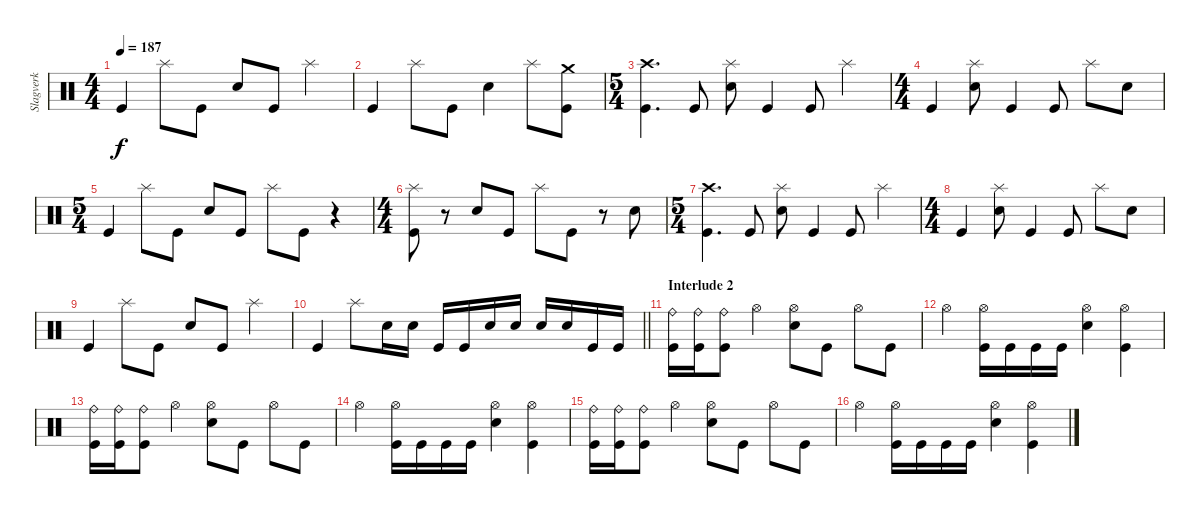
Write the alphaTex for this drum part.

\track ("Slagverk" "Slagverk") {instrument percussion}
\staff {score}
\articulation defaults
\ts (4 4)
\tempo 187
\clef neutral
\ks c "Kick (hit)".4{dy f} "Splash (hit)".8 "Kick (hit)".8 "Electric Snare (hit)".8 "Kick (hit)".8 "Splash (hit)".4
|
"Kick (hit)".4 "Splash (hit)".8 "Kick (hit)".8 "Electric Snare (hit)".4 "Splash (hit)".8 ("Crash medium (hit)" "Kick (hit)").8 |
\ts (5 4)
("Crash high (hit)" "Kick (hit)").4{d} "Kick (hit)".8 ("Splash (hit)" "Electric Snare (hit)").8 "Kick (hit)".4 "Kick (hit)".8 "Splash (hit)".4 |
\ts (4 4)
"Kick (hit)".4 ("Splash (hit)" "Electric Snare (hit)").8 "Kick (hit)".4 "Kick (hit)".8 "Splash (hit)".8 "Electric Snare (hit)".8 |
\ts (5 4)
"Kick (hit)".4 "Splash (hit)".8 "Kick (hit)".8 "Electric Snare (hit)".8 "Kick (hit)".8 "Splash (hit)".8 "Kick (hit)".8 r.4 |
\ts (4 4)
("Splash (hit)" "Kick (hit)").8 r.8 "Electric Snare (hit)".8 "Kick (hit)".8 "Splash (hit)".8 "Kick (hit)".8 r.8 "Electric Snare (hit)".8 |
\ts (5 4)
("Crash high (hit)" "Kick (hit)").4{d} "Kick (hit)".8 ("Splash (hit)" "Electric Snare (hit)").8 "Kick (hit)".4 "Kick (hit)".8 "Splash (hit)".4 |
\ts (4 4)
"Kick (hit)".4 ("Splash (hit)" "Electric Snare (hit)").8 "Kick (hit)".4 "Kick (hit)".8 "Splash (hit)".8 "Electric Snare (hit)".8 |
"Kick (hit)".4 "Splash (hit)".8 "Kick (hit)".8 "Electric Snare (hit)".8 "Kick (hit)".8 "Splash (hit)".4 |
\barLineRight lightlight "Kick (hit)".4 "Splash (hit)".8 "Electric Snare (hit)".16 "Electric Snare (hit)".16 "Kick (hit)".16 "Kick (hit)".16 "Electric Snare (hit)".16 "Electric Snare (hit)".16 "Electric Snare (hit)".16 "Electric Snare (hit)".16 "Kick (hit)".16 "Kick (hit)".16
|
\section ("" "Interlude 2")
("Ride (bell)" "Kick (hit)").16 ("Ride (bell)" "Kick (hit)").16 ("Ride (bell)" "Kick (hit)").8 "Hi-Hat (open)".4 ("Hi-Hat (open)" "Electric Snare (hit)").8 "Kick (hit)".8 "Hi-Hat (open)".8 "Kick (hit)".8 |
"Hi-Hat (open)".4 ("Hi-Hat (open)" "Kick (hit)").16 "Kick (hit)".16 "Kick (hit)".16 "Kick (hit)".16 ("Hi-Hat (open)" "Electric Snare (hit)").4 ("Hi-Hat (open)" "Kick (hit)").4 |
("Ride (bell)" "Kick (hit)").16 ("Ride (bell)" "Kick (hit)").16 ("Ride (bell)" "Kick (hit)").8 "Hi-Hat (open)".4 ("Hi-Hat (open)" "Electric Snare (hit)").8 "Kick (hit)".8 "Hi-Hat (open)".8 "Kick (hit)".8 |
"Hi-Hat (open)".4 ("Hi-Hat (open)" "Kick (hit)").16 "Kick (hit)".16 "Kick (hit)".16 "Kick (hit)".16 ("Hi-Hat (open)" "Electric Snare (hit)").4 ("Hi-Hat (open)" "Kick (hit)").4 |
("Ride (bell)" "Kick (hit)").16 ("Ride (bell)" "Kick (hit)").16 ("Ride (bell)" "Kick (hit)").8 "Hi-Hat (open)".4 ("Hi-Hat (open)" "Electric Snare (hit)").8 "Kick (hit)".8 "Hi-Hat (open)".8 "Kick (hit)".8 |
"Hi-Hat (open)".4 ("Hi-Hat (open)" "Kick (hit)").16 "Kick (hit)".16 "Kick (hit)".16 "Kick (hit)".16 ("Hi-Hat (open)" "Electric Snare (hit)").4 ("Hi-Hat (open)" "Kick (hit)").4
